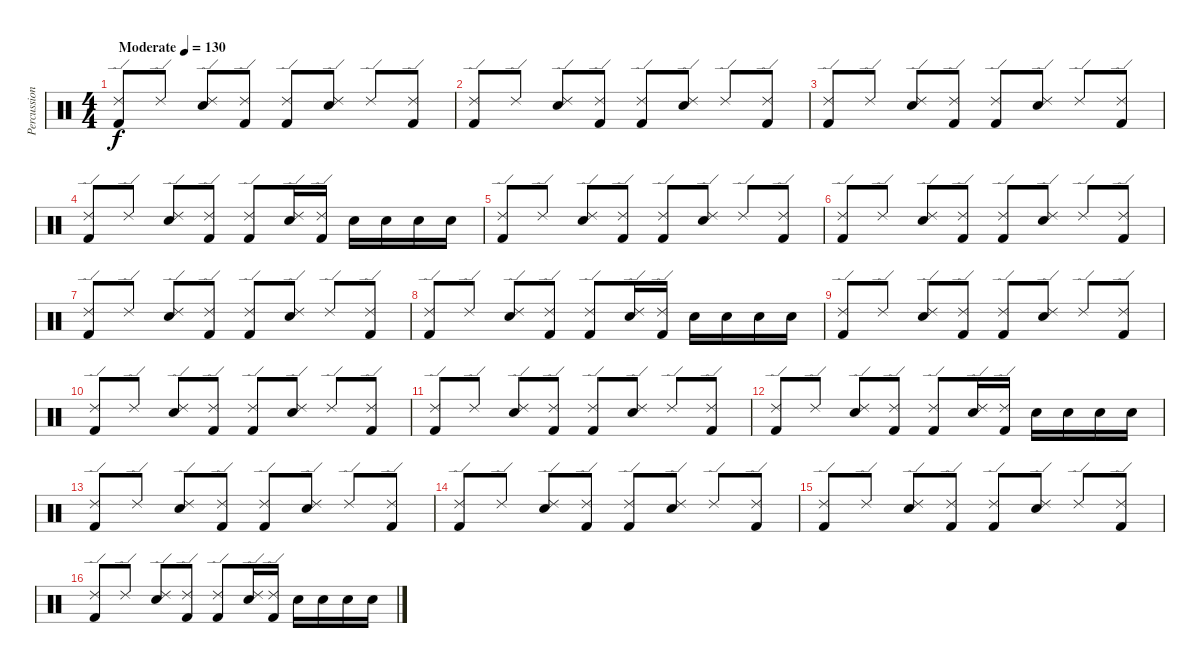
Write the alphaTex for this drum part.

\track ("Percussion" "Percussion") {instrument percussion}
\staff {score}
\articulation defaults
\ts (4 4)
\tempo (130 "Moderate")
\clef neutral
\ks c
("Kick (hit) 2" "Ride (edge) 2").8{dy f} "Ride (edge) 2".8 ("Snare (hit) 2" "Ride (edge) 2").8 ("Kick (hit) 2" "Ride (edge) 2").8 ("Kick (hit) 2" "Ride (edge) 2").8 ("Snare (hit) 2" "Ride (edge) 2").8 "Ride (edge) 2".8 ("Kick (hit) 2" "Ride (edge) 2").8 |
("Kick (hit) 2" "Ride (edge) 2").8 "Ride (edge) 2".8 ("Snare (hit) 2" "Ride (edge) 2").8 ("Kick (hit) 2" "Ride (edge) 2").8 ("Kick (hit) 2" "Ride (edge) 2").8 ("Snare (hit) 2" "Ride (edge) 2").8 "Ride (edge) 2".8 ("Kick (hit) 2" "Ride (edge) 2").8 |
("Kick (hit) 2" "Ride (edge) 2").8 "Ride (edge) 2".8 ("Snare (hit) 2" "Ride (edge) 2").8 ("Kick (hit) 2" "Ride (edge) 2").8 ("Kick (hit) 2" "Ride (edge) 2").8 ("Snare (hit) 2" "Ride (edge) 2").8 "Ride (edge) 2".8 ("Kick (hit) 2" "Ride (edge) 2").8 |
("Kick (hit) 2" "Ride (edge) 2").8 "Ride (edge) 2".8 ("Snare (hit) 2" "Ride (edge) 2").8 ("Kick (hit) 2" "Ride (edge) 2").8 ("Kick (hit) 2" "Ride (edge) 2").8 ("Snare (hit) 2" "Ride (edge) 2").16 ("Kick (hit) 2" "Ride (edge) 2").16 "Snare (hit) 2".16 "Snare (hit) 2".16 "Snare (hit) 2".16 "Snare (hit) 2".16 |
("Kick (hit) 2" "Ride (edge) 2").8 "Ride (edge) 2".8 ("Snare (hit) 2" "Ride (edge) 2").8 ("Kick (hit) 2" "Ride (edge) 2").8 ("Kick (hit) 2" "Ride (edge) 2").8 ("Snare (hit) 2" "Ride (edge) 2").8 "Ride (edge) 2".8 ("Kick (hit) 2" "Ride (edge) 2").8 |
("Kick (hit) 2" "Ride (edge) 2").8 "Ride (edge) 2".8 ("Snare (hit) 2" "Ride (edge) 2").8 ("Kick (hit) 2" "Ride (edge) 2").8 ("Kick (hit) 2" "Ride (edge) 2").8 ("Snare (hit) 2" "Ride (edge) 2").8 "Ride (edge) 2".8 ("Kick (hit) 2" "Ride (edge) 2").8 |
("Kick (hit) 2" "Ride (edge) 2").8 "Ride (edge) 2".8 ("Snare (hit) 2" "Ride (edge) 2").8 ("Kick (hit) 2" "Ride (edge) 2").8 ("Kick (hit) 2" "Ride (edge) 2").8 ("Snare (hit) 2" "Ride (edge) 2").8 "Ride (edge) 2".8 ("Kick (hit) 2" "Ride (edge) 2").8 |
("Kick (hit) 2" "Ride (edge) 2").8 "Ride (edge) 2".8 ("Snare (hit) 2" "Ride (edge) 2").8 ("Kick (hit) 2" "Ride (edge) 2").8 ("Kick (hit) 2" "Ride (edge) 2").8 ("Snare (hit) 2" "Ride (edge) 2").16 ("Kick (hit) 2" "Ride (edge) 2").16 "Snare (hit) 2".16 "Snare (hit) 2".16 "Snare (hit) 2".16 "Snare (hit) 2".16 |
("Kick (hit) 2" "Ride (edge) 2").8 "Ride (edge) 2".8 ("Snare (hit) 2" "Ride (edge) 2").8 ("Kick (hit) 2" "Ride (edge) 2").8 ("Kick (hit) 2" "Ride (edge) 2").8 ("Snare (hit) 2" "Ride (edge) 2").8 "Ride (edge) 2".8 ("Kick (hit) 2" "Ride (edge) 2").8 |
("Kick (hit) 2" "Ride (edge) 2").8 "Ride (edge) 2".8 ("Snare (hit) 2" "Ride (edge) 2").8 ("Kick (hit) 2" "Ride (edge) 2").8 ("Kick (hit) 2" "Ride (edge) 2").8 ("Snare (hit) 2" "Ride (edge) 2").8 "Ride (edge) 2".8 ("Kick (hit) 2" "Ride (edge) 2").8 |
("Kick (hit) 2" "Ride (edge) 2").8 "Ride (edge) 2".8 ("Snare (hit) 2" "Ride (edge) 2").8 ("Kick (hit) 2" "Ride (edge) 2").8 ("Kick (hit) 2" "Ride (edge) 2").8 ("Snare (hit) 2" "Ride (edge) 2").8 "Ride (edge) 2".8 ("Kick (hit) 2" "Ride (edge) 2").8 |
("Kick (hit) 2" "Ride (edge) 2").8 "Ride (edge) 2".8 ("Snare (hit) 2" "Ride (edge) 2").8 ("Kick (hit) 2" "Ride (edge) 2").8 ("Kick (hit) 2" "Ride (edge) 2").8 ("Snare (hit) 2" "Ride (edge) 2").16 ("Kick (hit) 2" "Ride (edge) 2").16 "Snare (hit) 2".16 "Snare (hit) 2".16 "Snare (hit) 2".16 "Snare (hit) 2".16 |
("Kick (hit) 2" "Ride (edge) 2").8 "Ride (edge) 2".8 ("Snare (hit) 2" "Ride (edge) 2").8 ("Kick (hit) 2" "Ride (edge) 2").8 ("Kick (hit) 2" "Ride (edge) 2").8 ("Snare (hit) 2" "Ride (edge) 2").8 "Ride (edge) 2".8 ("Kick (hit) 2" "Ride (edge) 2").8 |
("Kick (hit) 2" "Ride (edge) 2").8 "Ride (edge) 2".8 ("Snare (hit) 2" "Ride (edge) 2").8 ("Kick (hit) 2" "Ride (edge) 2").8 ("Kick (hit) 2" "Ride (edge) 2").8 ("Snare (hit) 2" "Ride (edge) 2").8 "Ride (edge) 2".8 ("Kick (hit) 2" "Ride (edge) 2").8 |
("Kick (hit) 2" "Ride (edge) 2").8 "Ride (edge) 2".8 ("Snare (hit) 2" "Ride (edge) 2").8 ("Kick (hit) 2" "Ride (edge) 2").8 ("Kick (hit) 2" "Ride (edge) 2").8 ("Snare (hit) 2" "Ride (edge) 2").8 "Ride (edge) 2".8 ("Kick (hit) 2" "Ride (edge) 2").8 |
("Kick (hit) 2" "Ride (edge) 2").8 "Ride (edge) 2".8 ("Snare (hit) 2" "Ride (edge) 2").8 ("Kick (hit) 2" "Ride (edge) 2").8 ("Kick (hit) 2" "Ride (edge) 2").8 ("Snare (hit) 2" "Ride (edge) 2").16 ("Kick (hit) 2" "Ride (edge) 2").16 "Snare (hit) 2".16 "Snare (hit) 2".16 "Snare (hit) 2".16 "Snare (hit) 2".16
